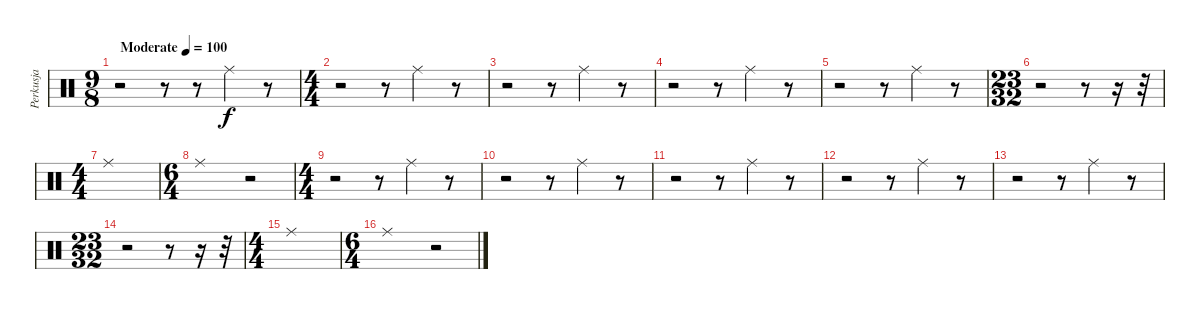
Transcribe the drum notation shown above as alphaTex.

\track ("Perkusja" "Perkusja") {instrument percussion}
\staff {score}
\articulation defaults
\ts (9 8)
\tempo (100 "Moderate")
\clef neutral
\ks c
r.2{dy f} r.8 r.8 "Ride (middle)".4 r.8 |
\ts (4 4)
r.2 r.8 "Ride (middle)".4 r.8 |
r.2 r.8 "Ride (middle)".4 r.8 |
r.2 r.8 "Ride (middle)".4 r.8 |
r.2 r.8 "Ride (middle)".4 r.8 |
\ts (23 32)
r.2 r.8 r.16 r.32 |
\ts (4 4)
"Ride (middle)".1 |
\ts (6 4)
"Ride (middle)".1 r.2 |
\ts (4 4)
r.2 r.8 "Ride (middle)".4 r.8 |
r.2 r.8 "Ride (middle)".4 r.8 |
r.2 r.8 "Ride (middle)".4 r.8 |
r.2 r.8 "Ride (middle)".4 r.8 |
r.2 r.8 "Ride (middle)".4 r.8 |
\ts (23 32)
r.2 r.8 r.16 r.32 |
\ts (4 4)
"Ride (middle)".1 |
\ts (6 4)
"Ride (middle)".1 r.2
